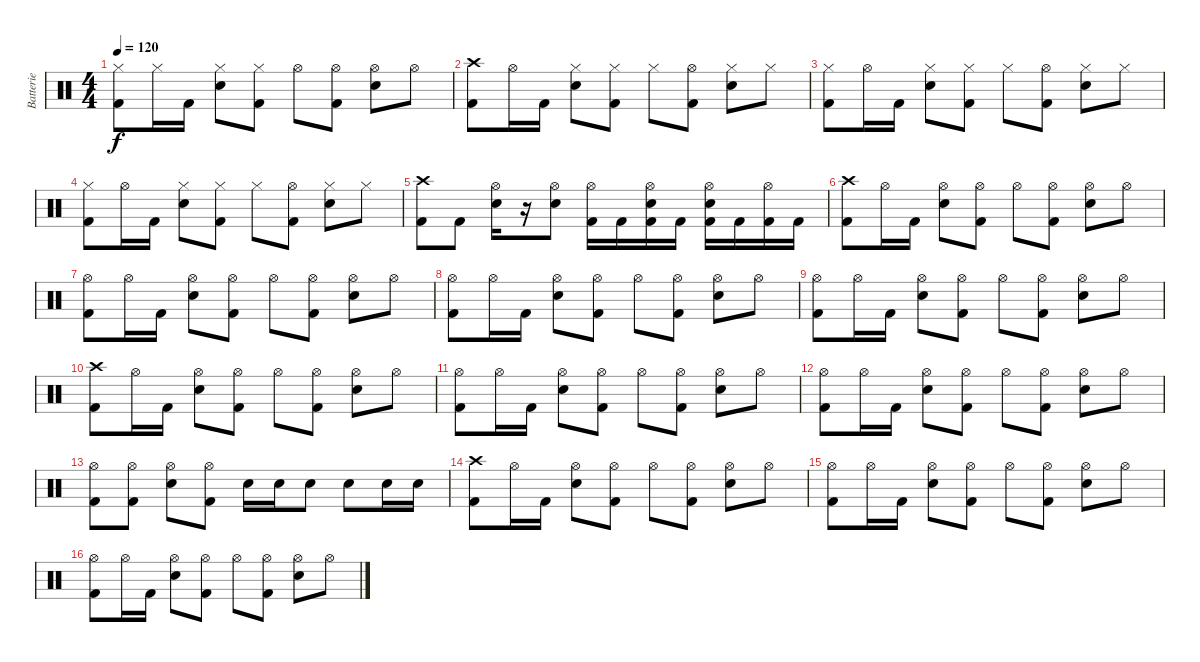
\track ("Batterie" "Batterie") {instrument percussion}
\staff {score}
\articulation defaults
\ts (4 4)
\tempo 120
\clef neutral
\ks c
("Hi-Hat (closed)" "Kick (hit) 2").8{dy f} "Hi-Hat (closed)".16 "Kick (hit) 2".16 ("Hi-Hat (closed)" "Snare (hit) 2").8 ("Hi-Hat (closed)" "Kick (hit) 2").8 "Hi-Hat (open)".8 ("Hi-Hat (open)" "Kick (hit) 2").8 ("Hi-Hat (open)" "Snare (hit) 2").8 "Hi-Hat (open)".8 |
("Crash high (hit)" "Kick (hit) 2").8 "Hi-Hat (open)".16 "Kick (hit) 2".16 ("Hi-Hat (closed)" "Snare (hit) 2").8 ("Hi-Hat (closed)" "Kick (hit) 2").8 "Hi-Hat (closed)".8 ("Hi-Hat (open)" "Kick (hit) 2").8 ("Hi-Hat (closed)" "Snare (hit) 2").8 "Hi-Hat (closed)".8 |
("Hi-Hat (closed)" "Kick (hit) 2").8 "Hi-Hat (open)".16 "Kick (hit) 2".16 ("Hi-Hat (closed)" "Snare (hit) 2").8 ("Hi-Hat (closed)" "Kick (hit) 2").8 "Hi-Hat (closed)".8 ("Hi-Hat (open)" "Kick (hit) 2").8 ("Hi-Hat (closed)" "Snare (hit) 2").8 "Hi-Hat (closed)".8 |
("Hi-Hat (closed)" "Kick (hit) 2").8 "Hi-Hat (open)".16 "Kick (hit) 2".16 ("Hi-Hat (closed)" "Snare (hit) 2").8 ("Hi-Hat (closed)" "Kick (hit) 2").8 "Hi-Hat (closed)".8 ("Hi-Hat (open)" "Kick (hit) 2").8 ("Hi-Hat (closed)" "Snare (hit) 2").8 "Hi-Hat (closed)".8 |
("Crash high (hit)" "Kick (hit) 2").8 "Kick (hit) 2".8 ("Hi-Hat (open)" "Snare (hit) 2").16 r.16 ("Hi-Hat (open)" "Snare (hit) 2").8 ("Hi-Hat (open)" "Kick (hit) 2").16 "Kick (hit) 2".16 ("Hi-Hat (open)" "Snare (hit) 2" "Kick (hit) 2").16 "Kick (hit) 2".16 ("Hi-Hat (open)" "Snare (hit) 2" "Kick (hit) 2").16 "Kick (hit) 2".16 ("Hi-Hat (open)" "Kick (hit) 2").16 "Kick (hit) 2".16 |
("Crash high (hit)" "Kick (hit) 2").8 "Hi-Hat (open)".16 "Kick (hit) 2".16 ("Hi-Hat (open)" "Snare (hit) 2").8 ("Hi-Hat (open)" "Kick (hit) 2").8 "Hi-Hat (open)".8 ("Hi-Hat (open)" "Kick (hit) 2").8 ("Hi-Hat (open)" "Snare (hit) 2").8 "Hi-Hat (open)".8 |
("Hi-Hat (open)" "Kick (hit) 2").8 "Hi-Hat (open)".16 "Kick (hit) 2".16 ("Hi-Hat (open)" "Snare (hit) 2").8 ("Hi-Hat (open)" "Kick (hit) 2").8 "Hi-Hat (open)".8 ("Hi-Hat (open)" "Kick (hit) 2").8 ("Hi-Hat (open)" "Snare (hit) 2").8 "Hi-Hat (open)".8 |
("Hi-Hat (open)" "Kick (hit) 2").8 "Hi-Hat (open)".16 "Kick (hit) 2".16 ("Hi-Hat (open)" "Snare (hit) 2").8 ("Hi-Hat (open)" "Kick (hit) 2").8 "Hi-Hat (open)".8 ("Hi-Hat (open)" "Kick (hit) 2").8 ("Hi-Hat (open)" "Snare (hit) 2").8 "Hi-Hat (open)".8 |
("Hi-Hat (open)" "Kick (hit) 2").8 "Hi-Hat (open)".16 "Kick (hit) 2".16 ("Hi-Hat (open)" "Snare (hit) 2").8 ("Hi-Hat (open)" "Kick (hit) 2").8 "Hi-Hat (open)".8 ("Hi-Hat (open)" "Kick (hit) 2").8 ("Hi-Hat (open)" "Snare (hit) 2").8 "Hi-Hat (open)".8 |
("Crash high (hit)" "Kick (hit) 2").8 "Hi-Hat (open)".16 "Kick (hit) 2".16 ("Hi-Hat (open)" "Snare (hit) 2").8 ("Hi-Hat (open)" "Kick (hit) 2").8 "Hi-Hat (open)".8 ("Hi-Hat (open)" "Kick (hit) 2").8 ("Hi-Hat (open)" "Snare (hit) 2").8 "Hi-Hat (open)".8 |
("Hi-Hat (open)" "Kick (hit) 2").8 "Hi-Hat (open)".16 "Kick (hit) 2".16 ("Hi-Hat (open)" "Snare (hit) 2").8 ("Hi-Hat (open)" "Kick (hit) 2").8 "Hi-Hat (open)".8 ("Hi-Hat (open)" "Kick (hit) 2").8 ("Hi-Hat (open)" "Snare (hit) 2").8 "Hi-Hat (open)".8 |
("Hi-Hat (open)" "Kick (hit) 2").8 "Hi-Hat (open)".16 "Kick (hit) 2".16 ("Hi-Hat (open)" "Snare (hit) 2").8 ("Hi-Hat (open)" "Kick (hit) 2").8 "Hi-Hat (open)".8 ("Hi-Hat (open)" "Kick (hit) 2").8 ("Hi-Hat (open)" "Snare (hit) 2").8 "Hi-Hat (open)".8 |
("Hi-Hat (open)" "Kick (hit) 2").8 ("Hi-Hat (open)" "Kick (hit) 2").8 ("Hi-Hat (open)" "Snare (hit) 2").8 ("Hi-Hat (open)" "Kick (hit) 2").8 "Snare (hit) 2".16 "Snare (hit) 2".16 "Snare (hit) 2".8 "Snare (hit) 2".8 "Snare (hit) 2".16 "Snare (hit) 2".16 |
("Crash high (hit)" "Kick (hit) 2").8 "Hi-Hat (open)".16 "Kick (hit) 2".16 ("Hi-Hat (open)" "Snare (hit) 2").8 ("Hi-Hat (open)" "Kick (hit) 2").8 "Hi-Hat (open)".8 ("Hi-Hat (open)" "Kick (hit) 2").8 ("Hi-Hat (open)" "Snare (hit) 2").8 "Hi-Hat (open)".8 |
("Hi-Hat (open)" "Kick (hit) 2").8 "Hi-Hat (open)".16 "Kick (hit) 2".16 ("Hi-Hat (open)" "Snare (hit) 2").8 ("Hi-Hat (open)" "Kick (hit) 2").8 "Hi-Hat (open)".8 ("Hi-Hat (open)" "Kick (hit) 2").8 ("Hi-Hat (open)" "Snare (hit) 2").8 "Hi-Hat (open)".8 |
("Hi-Hat (open)" "Kick (hit) 2").8 "Hi-Hat (open)".16 "Kick (hit) 2".16 ("Hi-Hat (open)" "Snare (hit) 2").8 ("Hi-Hat (open)" "Kick (hit) 2").8 "Hi-Hat (open)".8 ("Hi-Hat (open)" "Kick (hit) 2").8 ("Hi-Hat (open)" "Snare (hit) 2").8 "Hi-Hat (open)".8
